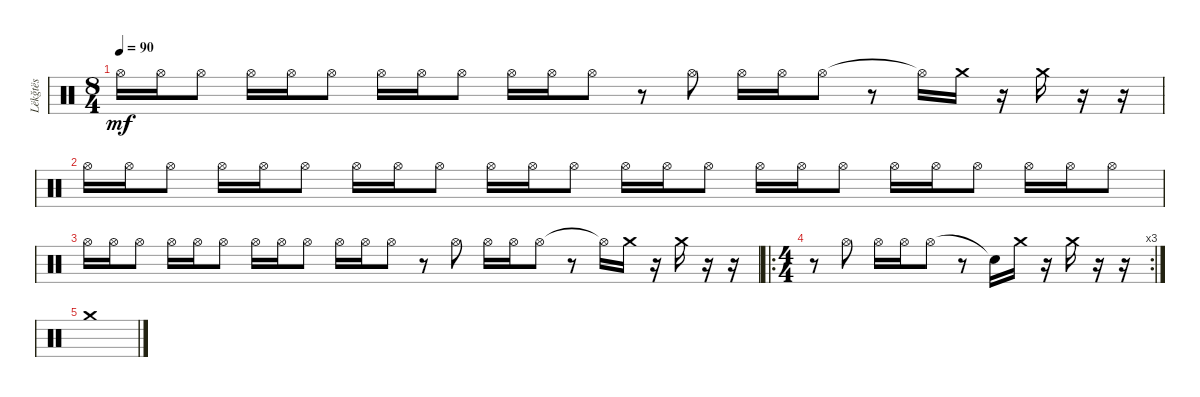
\track ("Lëkğtës" "Lëkğtës") {instrument percussion}
\staff {score}
\articulation defaults
\ts (8 4)
\tempo 90
\clef neutral
\ks c "Hi-Hat (open)".16{dy mf} "Hi-Hat (open)".16 "Hi-Hat (open)".8 "Hi-Hat (open)".16 "Hi-Hat (open)".16 "Hi-Hat (open)".8 "Hi-Hat (open)".16 "Hi-Hat (open)".16 "Hi-Hat (open)".8 "Hi-Hat (open)".16 "Hi-Hat (open)".16 "Hi-Hat (open)".8
r.8 "Hi-Hat (open)".8 "Hi-Hat (open)".16 "Hi-Hat (open)".16 "Hi-Hat (open)".8 r.8 "Hi-Hat (open)"{t}.16 "Crash medium (hit)".16 r.16 "Crash medium (hit)".16 r.16 r.16 |
"Hi-Hat (open)".16 "Hi-Hat (open)".16 "Hi-Hat (open)".8 "Hi-Hat (open)".16 "Hi-Hat (open)".16 "Hi-Hat (open)".8 "Hi-Hat (open)".16 "Hi-Hat (open)".16 "Hi-Hat (open)".8 "Hi-Hat (open)".16 "Hi-Hat (open)".16 "Hi-Hat (open)".8 "Hi-Hat (open)".16 "Hi-Hat (open)".16 "Hi-Hat (open)".8 "Hi-Hat (open)".16 "Hi-Hat (open)".16 "Hi-Hat (open)".8 "Hi-Hat (open)".16 "Hi-Hat (open)".16 "Hi-Hat (open)".8 "Hi-Hat (open)".16 "Hi-Hat (open)".16 "Hi-Hat (open)".8 |
"Hi-Hat (open)".16 "Hi-Hat (open)".16 "Hi-Hat (open)".8 "Hi-Hat (open)".16 "Hi-Hat (open)".16 "Hi-Hat (open)".8 "Hi-Hat (open)".16 "Hi-Hat (open)".16 "Hi-Hat (open)".8 "Hi-Hat (open)".16 "Hi-Hat (open)".16 "Hi-Hat (open)".8 r.8 "Hi-Hat (open)".8 "Hi-Hat (open)".16 "Hi-Hat (open)".16 "Hi-Hat (open)".8 r.8 "Hi-Hat (open)"{t}.16 "Crash medium (hit)".16 r.16 "Crash medium (hit)".16 r.16 r.16 |
\ro
\rc 3
\ts (4 4)
r.8 "Hi-Hat (open)".8 "Hi-Hat (open)".16 "Hi-Hat (open)".16 "Hi-Hat (open)".8 r.8 "Snare (hit)"{t}.16 "Crash medium (hit)".16 r.16 "Crash medium (hit)".16 r.16 r.16 |
"Crash medium (hit)".1
